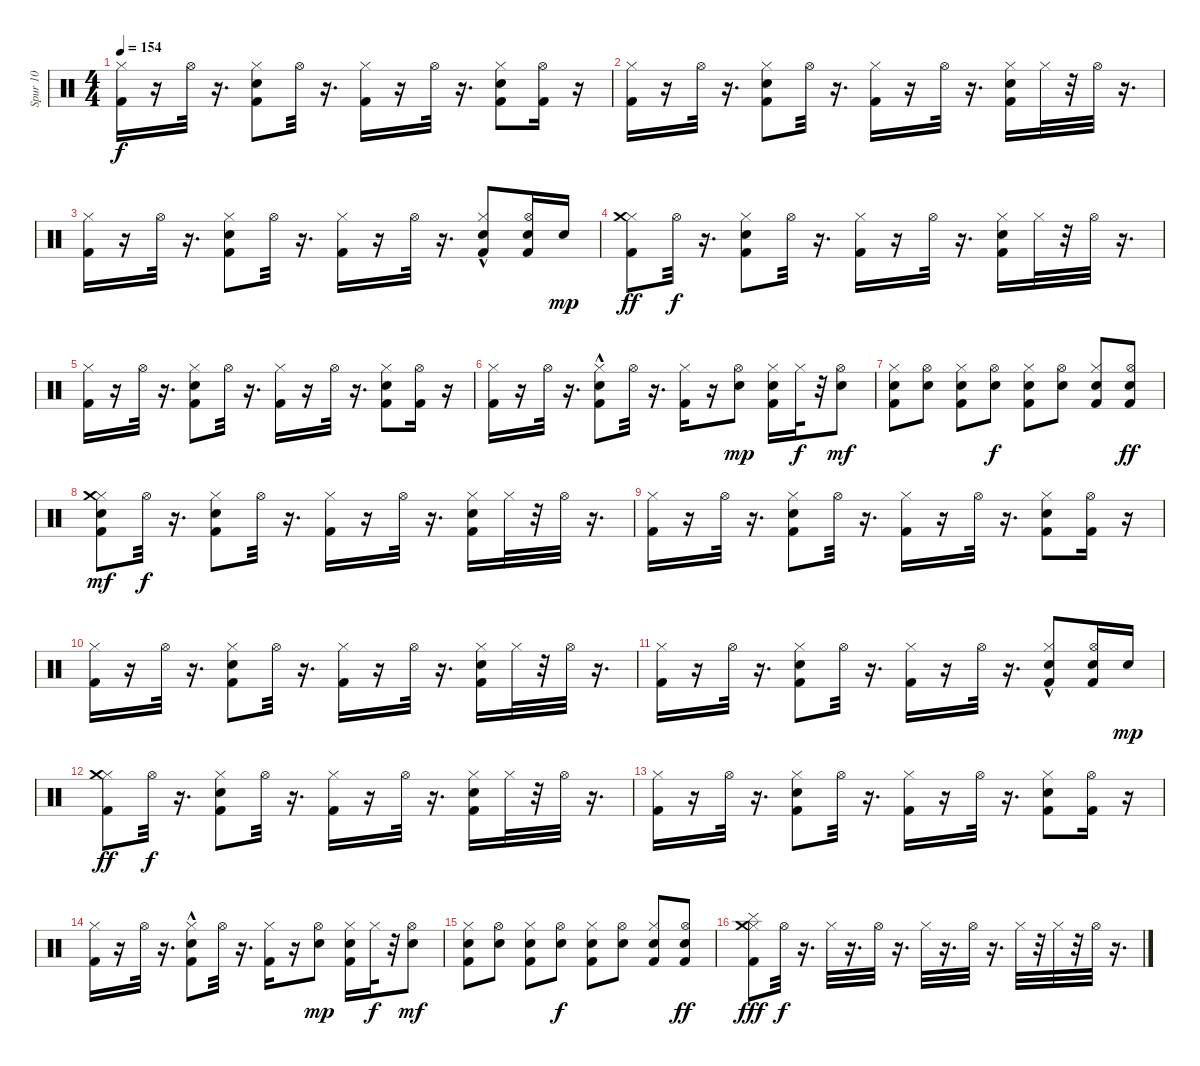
\track ("Spur 10" "Spur 10") {instrument percussion}
\staff {score}
\articulation defaults
\ts (4 4)
\tempo 154
\clef neutral
\ks c
("Kick (hit) 2" "Hi-Hat (closed)").16{dy f} r.16 "Hi-Hat (open)".32 r.16{d} ("Kick (hit) 2" "Snare (hit) 2" "Hi-Hat (closed)").8 "Hi-Hat (open)".32 r.16{d} ("Kick (hit) 2" "Hi-Hat (closed)").16 r.16 "Hi-Hat (open)".32 r.16{d} ("Kick (hit) 2" "Snare (hit) 2" "Hi-Hat (closed)").8 ("Kick (hit) 2" "Hi-Hat (open)").16 r.16 |
("Kick (hit) 2" "Hi-Hat (closed)").16 r.16 "Hi-Hat (open)".32 r.16{d} ("Kick (hit) 2" "Snare (hit) 2" "Hi-Hat (closed)").8 "Hi-Hat (open)".32 r.16{d} ("Kick (hit) 2" "Hi-Hat (closed)").16 r.16 "Hi-Hat (open)".32 r.16{d} ("Kick (hit) 2" "Snare (hit) 2" "Hi-Hat (closed)").16 "Hi-Hat (closed)".32 r.32 "Hi-Hat (open)".32 r.16{d} |
("Kick (hit) 2" "Hi-Hat (closed)").16 r.16 "Hi-Hat (open)".32 r.16{d} ("Kick (hit) 2" "Snare (hit) 2" "Hi-Hat (closed)").8 "Hi-Hat (open)".32 r.16{d} ("Kick (hit) 2" "Hi-Hat (closed)").16 r.16 "Hi-Hat (open)".32 r.16{d} ("Kick (hit) 2" "Snare (hit) 2"{hac} "Hi-Hat (closed)").8 ("Electric Snare (hit)" "Kick (hit) 2" "Hi-Hat (open)").16 "Snare (hit) 2".16{dy mp} |
("Kick (hit) 2" "Hi-Hat (closed)" "Crash medium (hit)").8{dy ff} "Hi-Hat (open)".32{dy f} r.16{d} ("Kick (hit) 2" "Snare (hit) 2" "Hi-Hat (closed)").8 "Hi-Hat (open)".32 r.16{d} ("Kick (hit) 2" "Hi-Hat (closed)").16 r.16 "Hi-Hat (open)".32 r.16{d} ("Kick (hit) 2" "Snare (hit) 2" "Hi-Hat (closed)").16 "Hi-Hat (closed)".32 r.32 "Hi-Hat (open)".32 r.16{d} |
("Kick (hit) 2" "Hi-Hat (closed)").16 r.16 "Hi-Hat (open)".32 r.16{d} ("Kick (hit) 2" "Snare (hit) 2" "Hi-Hat (closed)").8 "Hi-Hat (open)".32 r.16{d} ("Kick (hit) 2" "Hi-Hat (closed)").16 r.16 "Hi-Hat (open)".32 r.16{d} ("Kick (hit) 2" "Snare (hit) 2" "Hi-Hat (closed)").8 ("Kick (hit) 2" "Hi-Hat (open)").16 r.16 |
("Kick (hit) 2" "Hi-Hat (closed)").16 r.16 "Hi-Hat (open)".32 r.16{d} ("Kick (hit) 2" "Snare (hit) 2"{hac} "Hi-Hat (closed)").8 "Hi-Hat (open)".32 r.16{d} ("Kick (hit) 2" "Hi-Hat (closed)").16 r.16 ("Snare (hit) 2" "Hi-Hat (open)").8{dy mp} ("Kick (hit) 2" "Snare (hit) 2" "Hi-Hat (closed)").16 "Hi-Hat (closed)".32{dy f} r.32 ("Snare (hit) 2" "Hi-Hat (open)").8{dy mf} |
("Kick (hit) 2" "Snare (hit) 2" "Hi-Hat (closed)").8 ("Snare (hit) 2" "Hi-Hat (open)").8 ("Kick (hit) 2" "Snare (hit) 2" "Hi-Hat (closed)").8 ("Snare (hit) 2" "Hi-Hat (open)").8{dy f} ("Kick (hit) 2" "Snare (hit) 2" "Hi-Hat (closed)").8 ("Snare (hit) 2" "Hi-Hat (open)").8 ("Kick (hit) 2" "Snare (hit) 2" "Hi-Hat (closed)").8 ("Kick (hit) 2" "Snare (hit) 2" "Hi-Hat (open)").8{dy ff} |
("Kick (hit) 2" "Snare (hit) 2" "Hi-Hat (closed)" "Crash medium (hit)").8{dy mf} "Hi-Hat (open)".32{dy f} r.16{d} ("Kick (hit) 2" "Snare (hit) 2" "Hi-Hat (closed)").8 "Hi-Hat (open)".32 r.16{d} ("Kick (hit) 2" "Hi-Hat (closed)").16 r.16 "Hi-Hat (open)".32 r.16{d} ("Kick (hit) 2" "Snare (hit) 2" "Hi-Hat (closed)").16 "Hi-Hat (closed)".32 r.32 "Hi-Hat (open)".32 r.16{d} |
("Kick (hit) 2" "Hi-Hat (closed)").16 r.16 "Hi-Hat (open)".32 r.16{d} ("Kick (hit) 2" "Snare (hit) 2" "Hi-Hat (closed)").8 "Hi-Hat (open)".32 r.16{d} ("Kick (hit) 2" "Hi-Hat (closed)").16 r.16 "Hi-Hat (open)".32 r.16{d} ("Kick (hit) 2" "Snare (hit) 2" "Hi-Hat (closed)").8 ("Kick (hit) 2" "Hi-Hat (open)").16 r.16 |
("Kick (hit) 2" "Hi-Hat (closed)").16 r.16 "Hi-Hat (open)".32 r.16{d} ("Kick (hit) 2" "Snare (hit) 2" "Hi-Hat (closed)").8 "Hi-Hat (open)".32 r.16{d} ("Kick (hit) 2" "Hi-Hat (closed)").16 r.16 "Hi-Hat (open)".32 r.16{d} ("Kick (hit) 2" "Snare (hit) 2" "Hi-Hat (closed)").16 "Hi-Hat (closed)".32 r.32 "Hi-Hat (open)".32 r.16{d} |
("Kick (hit) 2" "Hi-Hat (closed)").16 r.16 "Hi-Hat (open)".32 r.16{d} ("Kick (hit) 2" "Snare (hit) 2" "Hi-Hat (closed)").8 "Hi-Hat (open)".32 r.16{d} ("Kick (hit) 2" "Hi-Hat (closed)").16 r.16 "Hi-Hat (open)".32 r.16{d} ("Kick (hit) 2" "Snare (hit) 2"{hac} "Hi-Hat (closed)").8 ("Electric Snare (hit)" "Kick (hit) 2" "Hi-Hat (open)").16 "Snare (hit) 2".16{dy mp} |
("Kick (hit) 2" "Hi-Hat (closed)" "Crash medium (hit)").8{dy ff} "Hi-Hat (open)".32{dy f} r.16{d} ("Kick (hit) 2" "Snare (hit) 2" "Hi-Hat (closed)").8 "Hi-Hat (open)".32 r.16{d} ("Kick (hit) 2" "Hi-Hat (closed)").16 r.16 "Hi-Hat (open)".32 r.16{d} ("Kick (hit) 2" "Snare (hit) 2" "Hi-Hat (closed)").16 "Hi-Hat (closed)".32 r.32 "Hi-Hat (open)".32 r.16{d} |
("Kick (hit) 2" "Hi-Hat (closed)").16 r.16 "Hi-Hat (open)".32 r.16{d} ("Kick (hit) 2" "Snare (hit) 2" "Hi-Hat (closed)").8 "Hi-Hat (open)".32 r.16{d} ("Kick (hit) 2" "Hi-Hat (closed)").16 r.16 "Hi-Hat (open)".32 r.16{d} ("Kick (hit) 2" "Snare (hit) 2" "Hi-Hat (closed)").8 ("Kick (hit) 2" "Hi-Hat (open)").16 r.16 |
("Kick (hit) 2" "Hi-Hat (closed)").16 r.16 "Hi-Hat (open)".32 r.16{d} ("Kick (hit) 2" "Snare (hit) 2"{hac} "Hi-Hat (closed)").8 "Hi-Hat (open)".32 r.16{d} ("Kick (hit) 2" "Hi-Hat (closed)").16 r.16 ("Snare (hit) 2" "Hi-Hat (open)").8{dy mp} ("Kick (hit) 2" "Snare (hit) 2" "Hi-Hat (closed)").16 "Hi-Hat (closed)".32{dy f} r.32 ("Snare (hit) 2" "Hi-Hat (open)").8{dy mf} |
("Kick (hit) 2" "Snare (hit) 2" "Hi-Hat (closed)").8 ("Snare (hit) 2" "Hi-Hat (open)").8 ("Kick (hit) 2" "Snare (hit) 2" "Hi-Hat (closed)").8 ("Snare (hit) 2" "Hi-Hat (open)").8{dy f} ("Kick (hit) 2" "Snare (hit) 2" "Hi-Hat (closed)").8 ("Snare (hit) 2" "Hi-Hat (open)").8 ("Kick (hit) 2" "Snare (hit) 2" "Hi-Hat (closed)").8 ("Kick (hit) 2" "Snare (hit) 2" "Hi-Hat (open)").8{dy ff} |
("Kick (hit) 2" "Cymbal (hit)" "Hi-Hat (closed)" "Crash medium (hit)").8{dy fff} "Hi-Hat (open)".32{dy f} r.16{d} "Hi-Hat (closed)".32 r.16{d} "Hi-Hat (open)".32 r.16{d} "Hi-Hat (closed)".32 r.16{d} "Hi-Hat (open)".32 r.16{d} "Hi-Hat (closed)".32 r.32 "Hi-Hat (closed)".32 r.32 "Hi-Hat (open)".32 r.16{d}
